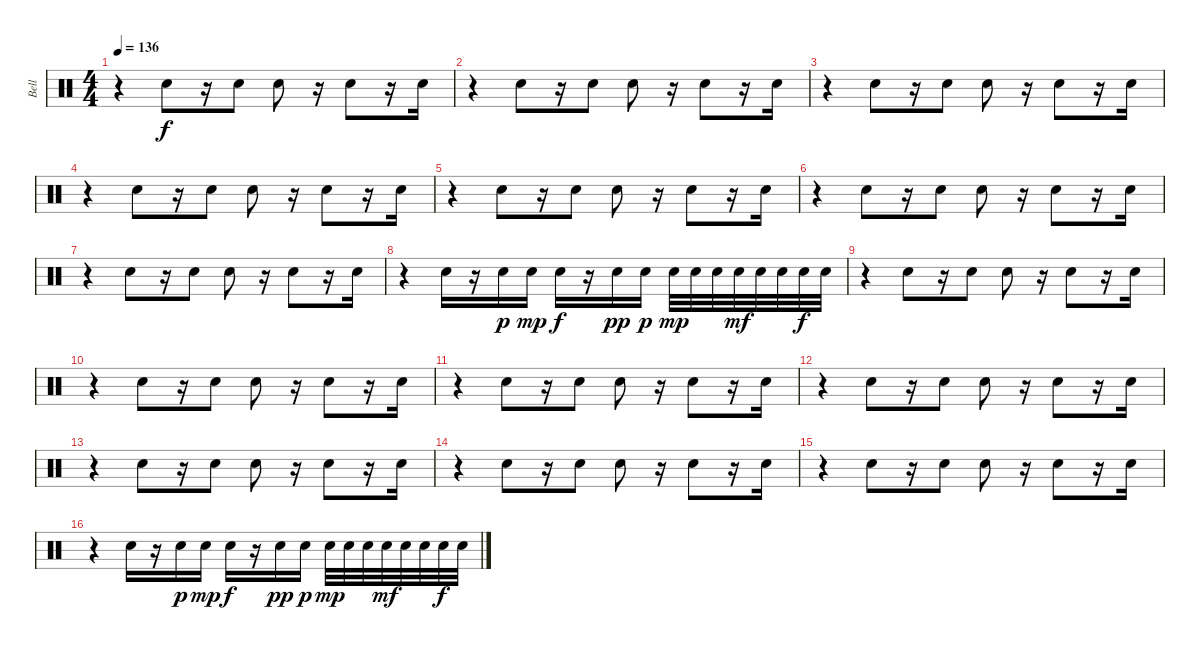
\track ("Bell" "Bell") {instrument percussion}
\staff {score}
\articulation defaults
\ts (4 4)
\tempo 136
\clef neutral
\ks c
r.4{dy f} "Metronome (bell)".8 r.16 "Metronome (bell)".8 "Metronome (bell)".8 r.16 "Metronome (bell)".8 r.16 "Metronome (bell)".16 |
r.4 "Metronome (bell)".8 r.16 "Metronome (bell)".8 "Metronome (bell)".8 r.16 "Metronome (bell)".8 r.16 "Metronome (bell)".16 |
r.4 "Metronome (bell)".8 r.16 "Metronome (bell)".8 "Metronome (bell)".8 r.16 "Metronome (bell)".8 r.16 "Metronome (bell)".16 |
r.4 "Metronome (bell)".8 r.16 "Metronome (bell)".8 "Metronome (bell)".8 r.16 "Metronome (bell)".8 r.16 "Metronome (bell)".16 |
r.4 "Metronome (bell)".8 r.16 "Metronome (bell)".8 "Metronome (bell)".8 r.16 "Metronome (bell)".8 r.16 "Metronome (bell)".16 |
r.4 "Metronome (bell)".8 r.16 "Metronome (bell)".8 "Metronome (bell)".8 r.16 "Metronome (bell)".8 r.16 "Metronome (bell)".16 |
r.4 "Metronome (bell)".8 r.16 "Metronome (bell)".8 "Metronome (bell)".8 r.16 "Metronome (bell)".8 r.16 "Metronome (bell)".16 |
r.4 "Metronome (bell)".16 r.16 "Metronome (bell)".16{dy p} "Metronome (bell)".16{dy mp} "Metronome (bell)".16{dy f} r.16 "Metronome (bell)".16{dy pp} "Metronome (bell)".16{dy p} "Metronome (bell)".32{dy mp} "Metronome (bell)".32 "Metronome (bell)".32 "Metronome (bell)".32{dy mf} "Metronome (bell)".32 "Metronome (bell)".32 "Metronome (bell)".32{dy f} "Metronome (bell)".32 |
r.4 "Metronome (bell)".8 r.16 "Metronome (bell)".8 "Metronome (bell)".8 r.16 "Metronome (bell)".8 r.16 "Metronome (bell)".16 |
r.4 "Metronome (bell)".8 r.16 "Metronome (bell)".8 "Metronome (bell)".8 r.16 "Metronome (bell)".8 r.16 "Metronome (bell)".16 |
r.4 "Metronome (bell)".8 r.16 "Metronome (bell)".8 "Metronome (bell)".8 r.16 "Metronome (bell)".8 r.16 "Metronome (bell)".16 |
r.4 "Metronome (bell)".8 r.16 "Metronome (bell)".8 "Metronome (bell)".8 r.16 "Metronome (bell)".8 r.16 "Metronome (bell)".16 |
r.4 "Metronome (bell)".8 r.16 "Metronome (bell)".8 "Metronome (bell)".8 r.16 "Metronome (bell)".8 r.16 "Metronome (bell)".16 |
r.4 "Metronome (bell)".8 r.16 "Metronome (bell)".8 "Metronome (bell)".8 r.16 "Metronome (bell)".8 r.16 "Metronome (bell)".16 |
r.4 "Metronome (bell)".8 r.16 "Metronome (bell)".8 "Metronome (bell)".8 r.16 "Metronome (bell)".8 r.16 "Metronome (bell)".16 |
r.4 "Metronome (bell)".16 r.16 "Metronome (bell)".16{dy p} "Metronome (bell)".16{dy mp} "Metronome (bell)".16{dy f} r.16 "Metronome (bell)".16{dy pp} "Metronome (bell)".16{dy p} "Metronome (bell)".32{dy mp} "Metronome (bell)".32 "Metronome (bell)".32 "Metronome (bell)".32{dy mf} "Metronome (bell)".32 "Metronome (bell)".32 "Metronome (bell)".32{dy f} "Metronome (bell)".32
